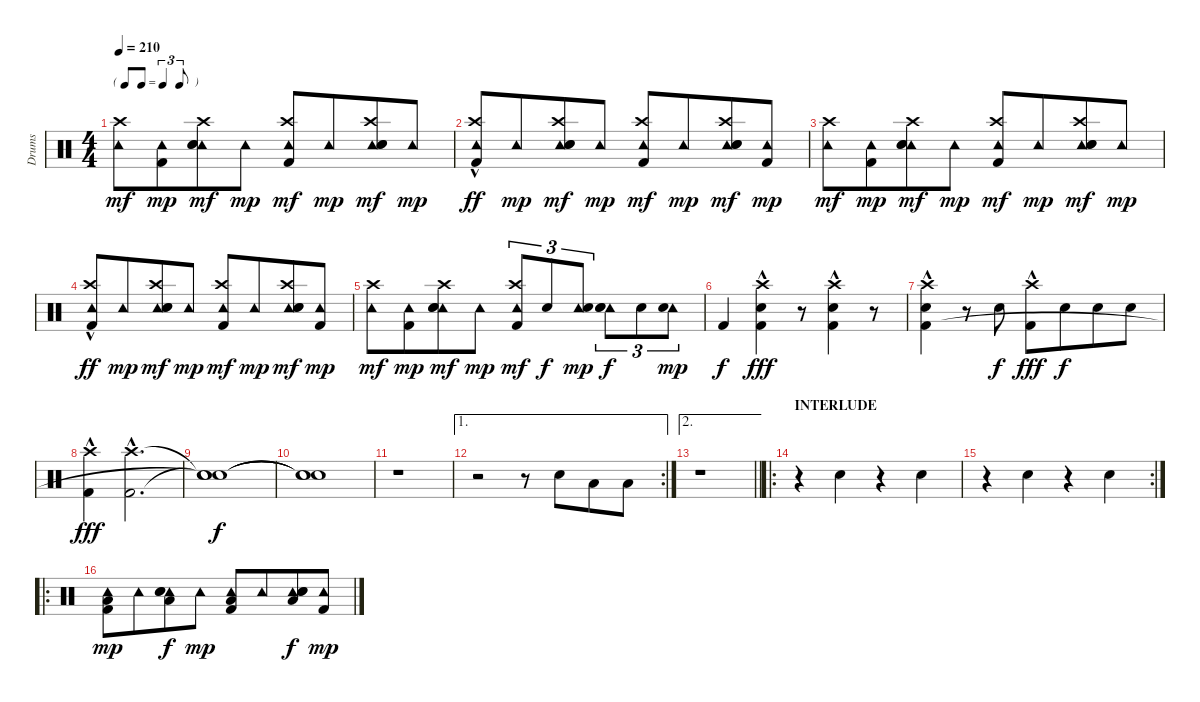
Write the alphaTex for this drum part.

\track ("Drums" "Drums") {instrument percussion}
\staff {score}
\articulation defaults
\ts (4 4)
\tf triplet8th
\tempo 210
\clef neutral
\ks c
("Tambourine (hit)" "Crash high (hit)").8{dy mf} ("Tambourine (hit)" "Kick (hit) 2").8{dy mp beam merge} ("Tambourine (hit)" "Crash high (hit)" "Hand Clap (hit)" "Electric Snare (hit)").8{dy mf} "Tambourine (hit)".8{dy mp} ("Tambourine (hit)" "Crash high (hit)" "Kick (hit) 2").8{dy mf} "Tambourine (hit)".8{dy mp beam merge} ("Tambourine (hit)" "Crash high (hit)" "Hand Clap (hit)" "Electric Snare (hit)").8{dy mf} "Tambourine (hit)".8{dy mp} |
("Tambourine (hit)" "Crash high (hit)"{hac} "Kick (hit) 2").8{dy ff} "Tambourine (hit)".8{dy mp beam merge} ("Tambourine (hit)" "Crash high (hit)" "Hand Clap (hit)" "Electric Snare (hit)").8{dy mf} "Tambourine (hit)".8{dy mp} ("Tambourine (hit)" "Crash high (hit)" "Kick (hit) 2").8{dy mf} "Tambourine (hit)".8{dy mp beam merge} ("Tambourine (hit)" "Crash high (hit)" "Hand Clap (hit)" "Electric Snare (hit)").8{dy mf} ("Tambourine (hit)" "Kick (hit) 2").8{dy mp} |
("Tambourine (hit)" "Crash high (hit)").8{dy mf} ("Tambourine (hit)" "Kick (hit) 2").8{dy mp beam merge} ("Tambourine (hit)" "Crash high (hit)" "Hand Clap (hit)" "Electric Snare (hit)").8{dy mf} "Tambourine (hit)".8{dy mp} ("Tambourine (hit)" "Crash high (hit)" "Kick (hit) 2").8{dy mf} "Tambourine (hit)".8{dy mp beam merge} ("Tambourine (hit)" "Crash high (hit)" "Hand Clap (hit)" "Electric Snare (hit)").8{dy mf} "Tambourine (hit)".8{dy mp} |
("Tambourine (hit)" "Crash high (hit)"{hac} "Kick (hit) 2").8{dy ff} "Tambourine (hit)".8{dy mp beam merge} ("Tambourine (hit)" "Crash high (hit)" "Hand Clap (hit)" "Electric Snare (hit)").8{dy mf} "Tambourine (hit)".8{dy mp} ("Tambourine (hit)" "Crash high (hit)" "Kick (hit) 2").8{dy mf} "Tambourine (hit)".8{dy mp beam merge} ("Tambourine (hit)" "Crash high (hit)" "Hand Clap (hit)" "Electric Snare (hit)").8{dy mf} ("Tambourine (hit)" "Kick (hit) 2").8{dy mp} |
("Tambourine (hit)" "Crash high (hit)").8{dy mf} ("Tambourine (hit)" "Kick (hit) 2").8{dy mp beam merge} ("Tambourine (hit)" "Crash high (hit)" "Hand Clap (hit)" "Electric Snare (hit)").8{dy mf} "Tambourine (hit)".8{dy mp} ("Tambourine (hit)" "Crash high (hit)" "Kick (hit) 2").8{tu (3 2) dy mf} "Electric Snare (hit)".8{tu (3 2) dy f} ("Tambourine (hit)" "Electric Snare (hit)").8{tu (3 2) dy mp} ("Tambourine (hit)" "Hand Clap (hit)" "Electric Snare (hit)").8{tu (3 2) dy f} "Electric Snare (hit)".8{tu (3 2)} ("Tambourine (hit)" "Electric Snare (hit)").8{tu (3 2) dy mp} |
"Kick (hit) 2".4{dy f} ("Crash high (hit)"{hac} "Electric Snare (hit)" "Kick (hit) 2").4{dy fff} r.8 ("Crash high (hit)"{hac} "Electric Snare (hit)" "Kick (hit) 2").4 r.8 |
("Crash high (hit)"{hac} "Electric Snare (hit)" "Kick (hit) 2").4 r.8 "Electric Snare (hit)".8{dy f} ("Crash high (hit)"{hac} "Kick (hit) 2").8{dy fff} "Electric Snare (hit)".8{dy f beam merge} "Electric Snare (hit)".8 "Electric Snare (hit)".8 |
("Crash high (hit)"{hac} "Kick (hit) 2").4{dy fff} ("Crash high (hit)"{hac} "Kick (hit) 2").2{d} |
("Snare (hit)"{t} "Snare (hit)"{t} "Snare (hit)"{t}).1{dy f} |
("Snare (hit)"{t} "Snare (hit)"{t} "Snare (hit)"{t}).1 |
r.1 |
\ae 1
\rc 2
r.2 r.8 "Electric Snare (hit)".8{beam merge} "Low Floor Tom (hit)".8 "Low Floor Tom (hit)".8 |
\ae 2
\barLineRight lightlight
r.1 |
\ro
\section ("" "INTERLUDE")
r.4 "Hand Clap (hit)".4 r.4 "Hand Clap (hit)".4 |
\rc 2
r.4 "Hand Clap (hit)".4 r.4 "Hand Clap (hit)".4 |
\ro
("Tambourine (hit)" "Low Tom (hit)" "Kick (hit) 2").8{dy mp} "Tambourine (hit)".8{beam merge} ("Tambourine (hit)" "Hand Clap (hit)" "Low Tom (hit)" "Electric Snare (hit)").8{dy f} "Tambourine (hit)".8{dy mp} ("Tambourine (hit)" "Low Tom (hit)" "Kick (hit) 2").8 "Tambourine (hit)".8{beam merge} ("Tambourine (hit)" "Hand Clap (hit)" "Low Tom (hit)" "Electric Snare (hit)").8{dy f} ("Tambourine (hit)" "Kick (hit) 2").8{dy mp}
